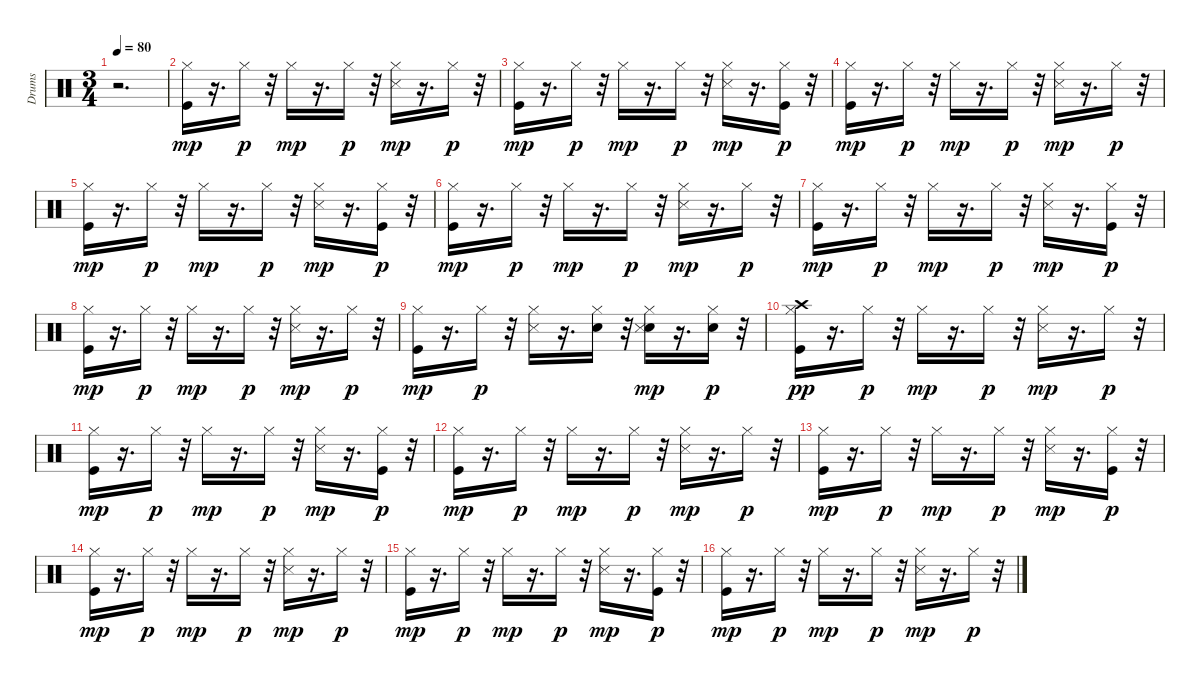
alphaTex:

\track ("Drums " "Drums ") {instrument percussion}
\staff {score}
\articulation defaults
\ts (3 4)
\tempo 80
\clef neutral
\ks c
r.2{d dy mp} |
("Kick (hit)" "Hi-Hat (closed)").16 r.16{d} "Hi-Hat (closed)".16{dy p} r.32 "Hi-Hat (closed)".16{dy mp} r.16{d} "Hi-Hat (closed)".16{dy p} r.32 ("Hi-Hat (closed)" "Snare (side stick) 3").16{dy mp} r.16{d} "Hi-Hat (closed)".16{dy p} r.32 |
("Kick (hit)" "Hi-Hat (closed)").16{dy mp} r.16{d} "Hi-Hat (closed)".16{dy p} r.32 "Hi-Hat (closed)".16{dy mp} r.16{d} "Hi-Hat (closed)".16{dy p} r.32 ("Hi-Hat (closed)" "Snare (side stick) 3").16{dy mp} r.16{d} ("Kick (hit)" "Hi-Hat (closed)").16{dy p} r.32 |
("Kick (hit)" "Hi-Hat (closed)").16{dy mp} r.16{d} "Hi-Hat (closed)".16{dy p} r.32 "Hi-Hat (closed)".16{dy mp} r.16{d} "Hi-Hat (closed)".16{dy p} r.32 ("Hi-Hat (closed)" "Snare (side stick) 3").16{dy mp} r.16{d} "Hi-Hat (closed)".16{dy p} r.32 |
("Kick (hit)" "Hi-Hat (closed)").16{dy mp} r.16{d} "Hi-Hat (closed)".16{dy p} r.32 "Hi-Hat (closed)".16{dy mp} r.16{d} "Hi-Hat (closed)".16{dy p} r.32 ("Hi-Hat (closed)" "Snare (side stick) 3").16{dy mp} r.16{d} ("Kick (hit)" "Hi-Hat (closed)").16{dy p} r.32 |
("Kick (hit)" "Hi-Hat (closed)").16{dy mp} r.16{d} "Hi-Hat (closed)".16{dy p} r.32 "Hi-Hat (closed)".16{dy mp} r.16{d} "Hi-Hat (closed)".16{dy p} r.32 ("Hi-Hat (closed)" "Snare (side stick) 3").16{dy mp} r.16{d} "Hi-Hat (closed)".16{dy p} r.32 |
("Kick (hit)" "Hi-Hat (closed)").16{dy mp} r.16{d} "Hi-Hat (closed)".16{dy p} r.32 "Hi-Hat (closed)".16{dy mp} r.16{d} "Hi-Hat (closed)".16{dy p} r.32 ("Hi-Hat (closed)" "Snare (side stick) 3").16{dy mp} r.16{d} ("Kick (hit)" "Hi-Hat (closed)").16{dy p} r.32 |
("Kick (hit)" "Hi-Hat (closed)").16{dy mp} r.16{d} "Hi-Hat (closed)".16{dy p} r.32 "Hi-Hat (closed)".16{dy mp} r.16{d} "Hi-Hat (closed)".16{dy p} r.32 ("Hi-Hat (closed)" "Snare (side stick) 3").16{dy mp} r.16{d} "Hi-Hat (closed)".16{dy p} r.32 |
("Kick (hit)" "Hi-Hat (closed)").16{dy mp} r.16{d} "Hi-Hat (closed)".16{dy p} r.32 ("Hi-Hat (closed)" "Snare (side stick) 3").16 r.16{d} ("Snare (hit) 2" "Hi-Hat (closed)").16 r.32 ("Snare (hit) 2" "Hi-Hat (closed)" "Snare (side stick) 3").16{dy mp} r.16{d} ("Snare (hit) 2" "Hi-Hat (closed)").16{dy p} r.32 |
("Kick (hit)" "Hi-Hat (closed)" "Crash high (hit)").16{dy pp} r.16{d} "Hi-Hat (closed)".16{dy p} r.32 "Hi-Hat (closed)".16{dy mp} r.16{d} "Hi-Hat (closed)".16{dy p} r.32 ("Hi-Hat (closed)" "Snare (side stick) 3").16{dy mp} r.16{d} "Hi-Hat (closed)".16{dy p} r.32 |
("Kick (hit)" "Hi-Hat (closed)").16{dy mp} r.16{d} "Hi-Hat (closed)".16{dy p} r.32 "Hi-Hat (closed)".16{dy mp} r.16{d} "Hi-Hat (closed)".16{dy p} r.32 ("Hi-Hat (closed)" "Snare (side stick) 3").16{dy mp} r.16{d} ("Kick (hit)" "Hi-Hat (closed)").16{dy p} r.32 |
("Kick (hit)" "Hi-Hat (closed)").16{dy mp} r.16{d} "Hi-Hat (closed)".16{dy p} r.32 "Hi-Hat (closed)".16{dy mp} r.16{d} "Hi-Hat (closed)".16{dy p} r.32 ("Hi-Hat (closed)" "Snare (side stick) 3").16{dy mp} r.16{d} "Hi-Hat (closed)".16{dy p} r.32 |
("Kick (hit)" "Hi-Hat (closed)").16{dy mp} r.16{d} "Hi-Hat (closed)".16{dy p} r.32 "Hi-Hat (closed)".16{dy mp} r.16{d} "Hi-Hat (closed)".16{dy p} r.32 ("Hi-Hat (closed)" "Snare (side stick) 3").16{dy mp} r.16{d} ("Kick (hit)" "Hi-Hat (closed)").16{dy p} r.32 |
("Kick (hit)" "Hi-Hat (closed)").16{dy mp} r.16{d} "Hi-Hat (closed)".16{dy p} r.32 "Hi-Hat (closed)".16{dy mp} r.16{d} "Hi-Hat (closed)".16{dy p} r.32 ("Hi-Hat (closed)" "Snare (side stick) 3").16{dy mp} r.16{d} "Hi-Hat (closed)".16{dy p} r.32 |
("Kick (hit)" "Hi-Hat (closed)").16{dy mp} r.16{d} "Hi-Hat (closed)".16{dy p} r.32 "Hi-Hat (closed)".16{dy mp} r.16{d} "Hi-Hat (closed)".16{dy p} r.32 ("Hi-Hat (closed)" "Snare (side stick) 3").16{dy mp} r.16{d} ("Kick (hit)" "Hi-Hat (closed)").16{dy p} r.32 |
("Kick (hit)" "Hi-Hat (closed)").16{dy mp} r.16{d} "Hi-Hat (closed)".16{dy p} r.32 "Hi-Hat (closed)".16{dy mp} r.16{d} "Hi-Hat (closed)".16{dy p} r.32 ("Hi-Hat (closed)" "Snare (side stick) 3").16{dy mp} r.16{d} "Hi-Hat (closed)".16{dy p} r.32
